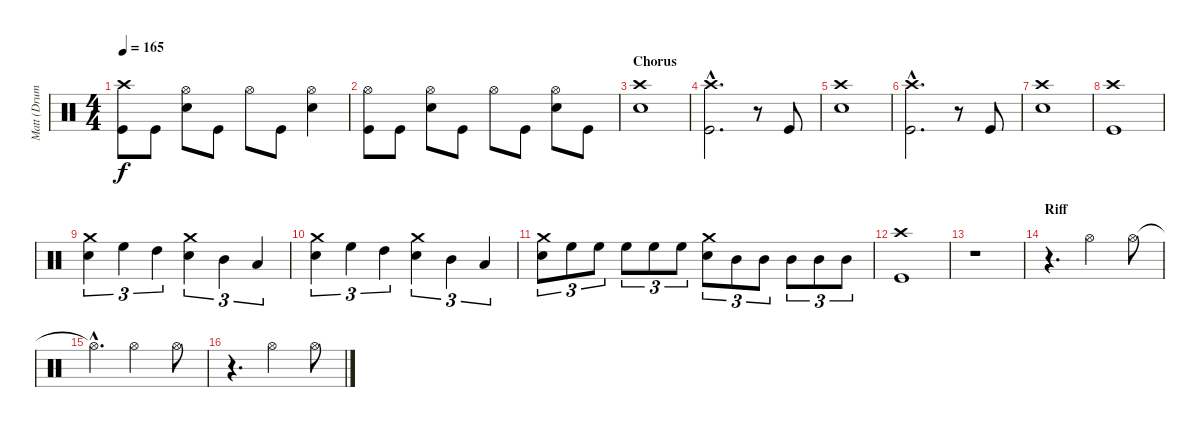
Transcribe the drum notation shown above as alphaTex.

\track ("Matt (Drums)" "Matt (Drum") {instrument percussion}
\staff {score}
\articulation defaults
\ts (4 4)
\tempo 165
\clef neutral
\ks c
("Crash high (hit)" "Kick (hit)").8{dy f} "Kick (hit)".8 ("Hi-Hat (open)" "Electric Snare (hit)").8 "Kick (hit)".8 "Hi-Hat (open)".8 "Kick (hit)".8 ("Hi-Hat (open)" "Electric Snare (hit)").4 |
("Hi-Hat (open)" "Kick (hit)").8 "Kick (hit)".8 ("Hi-Hat (open)" "Electric Snare (hit)").8 "Kick (hit)".8 "Hi-Hat (open)".8 "Kick (hit)".8 ("Hi-Hat (open)" "Electric Snare (hit)").8 "Kick (hit)".8 |
\section ("" "Chorus")
("Crash high (hit)" "Electric Snare (hit)").1 |
("Crash high (hit)"{hac} "Kick (hit)"{hac}).2{d} r.8 "Kick (hit)".8 |
("Crash high (hit)" "Electric Snare (hit)").1 |
("Crash high (hit)"{hac} "Kick (hit)"{hac}).2{d} r.8 "Kick (hit)".8 |
("Crash high (hit)" "Electric Snare (hit)").1 |
("Crash high (hit)" "Kick (hit)").1 |
("Crash medium (hit)" "Electric Snare (hit)").4{tu (3 2)} "High Floor Tom (hit)".4{tu (3 2)} "High Tom (hit)".4{tu (3 2)} ("Crash medium (hit)" "Electric Snare (hit)").4{tu (3 2)} "Mid Tom (hit)".4{tu (3 2)} "Low Tom (hit)".4{tu (3 2)} |
("Crash medium (hit)" "Electric Snare (hit)").4{tu (3 2)} "High Floor Tom (hit)".4{tu (3 2)} "High Tom (hit)".4{tu (3 2)} ("Crash medium (hit)" "Electric Snare (hit)").4{tu (3 2)} "Mid Tom (hit)".4{tu (3 2)} "Low Tom (hit)".4{tu (3 2)} |
("Crash medium (hit)" "Electric Snare (hit)").8{tu (3 2)} "High Floor Tom (hit)".8{tu (3 2)} "High Floor Tom (hit)".8{tu (3 2)} "High Floor Tom (hit)".8{tu (3 2)} "High Floor Tom (hit)".8{tu (3 2)} "High Floor Tom (hit)".8{tu (3 2)} ("Crash medium (hit)" "Electric Snare (hit)").8{tu (3 2)} "Mid Tom (hit)".8{tu (3 2)} "Mid Tom (hit)".8{tu (3 2)} "Mid Tom (hit)".8{tu (3 2)} "Mid Tom (hit)".8{tu (3 2)} "Mid Tom (hit)".8{tu (3 2)} |
("Crash high (hit)" "Kick (hit)").1 |
r.1 |
\section ("" "Riff")
r.4{d} "Hi-Hat (open)".2 "Hi-Hat (open)".8 |
"Hi-Hat (open)"{hac t}.4{d} "Hi-Hat (open)".2 "Hi-Hat (open)".8 |
r.4{d} "Hi-Hat (open)".2 "Hi-Hat (open)".8
